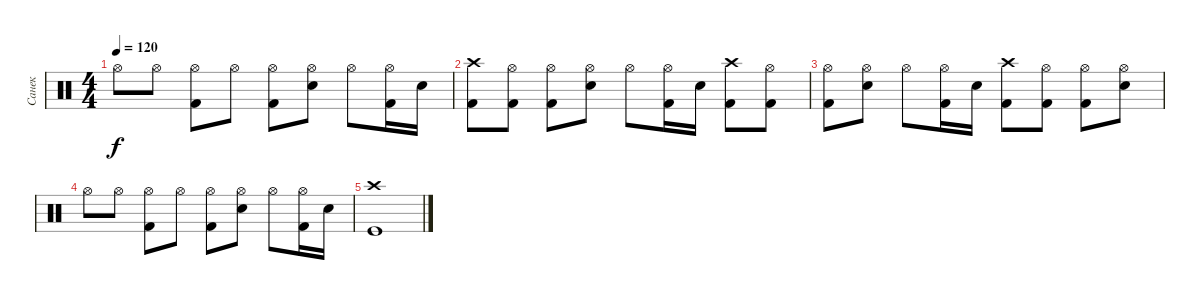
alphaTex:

\track ("Санек" "Санек") {instrument percussion}
\staff {score}
\articulation defaults
\ts (4 4)
\tempo 120
\clef neutral
\ks c "Hi-Hat (open)".8{dy f} "Hi-Hat (open)".8
("Hi-Hat (open)" "Kick (hit) 2").8 "Hi-Hat (open)".8 ("Hi-Hat (open)" "Kick (hit) 2").8 ("Hi-Hat (open)" "Electric Snare (hit)").8 "Hi-Hat (open)".8 ("Hi-Hat (open)" "Kick (hit) 2").16 "Electric Snare (hit)".16 |
("Crash high (hit)" "Kick (hit) 2").8 ("Hi-Hat (open)" "Kick (hit) 2").8 ("Hi-Hat (open)" "Kick (hit) 2").8 ("Hi-Hat (open)" "Electric Snare (hit)").8 "Hi-Hat (open)".8 ("Hi-Hat (open)" "Kick (hit) 2").16 "Electric Snare (hit)".16 ("Crash high (hit)" "Kick (hit) 2").8 ("Hi-Hat (open)" "Kick (hit) 2").8 |
("Hi-Hat (open)" "Kick (hit) 2").8 ("Hi-Hat (open)" "Electric Snare (hit)").8 "Hi-Hat (open)".8 ("Hi-Hat (open)" "Kick (hit) 2").16 "Electric Snare (hit)".16 ("Crash high (hit)" "Kick (hit) 2").8 ("Hi-Hat (open)" "Kick (hit) 2").8 ("Hi-Hat (open)" "Kick (hit) 2").8 ("Hi-Hat (open)" "Electric Snare (hit)").8 |
"Hi-Hat (open)".8 "Hi-Hat (open)".8 ("Hi-Hat (open)" "Kick (hit) 2").8 "Hi-Hat (open)".8 ("Hi-Hat (open)" "Kick (hit) 2").8 ("Hi-Hat (open)" "Electric Snare (hit)").8 "Hi-Hat (open)".8 ("Hi-Hat (open)" "Kick (hit) 2").16 "Electric Snare (hit)".16 |
("Crash high (hit)" "Kick (hit)").1
